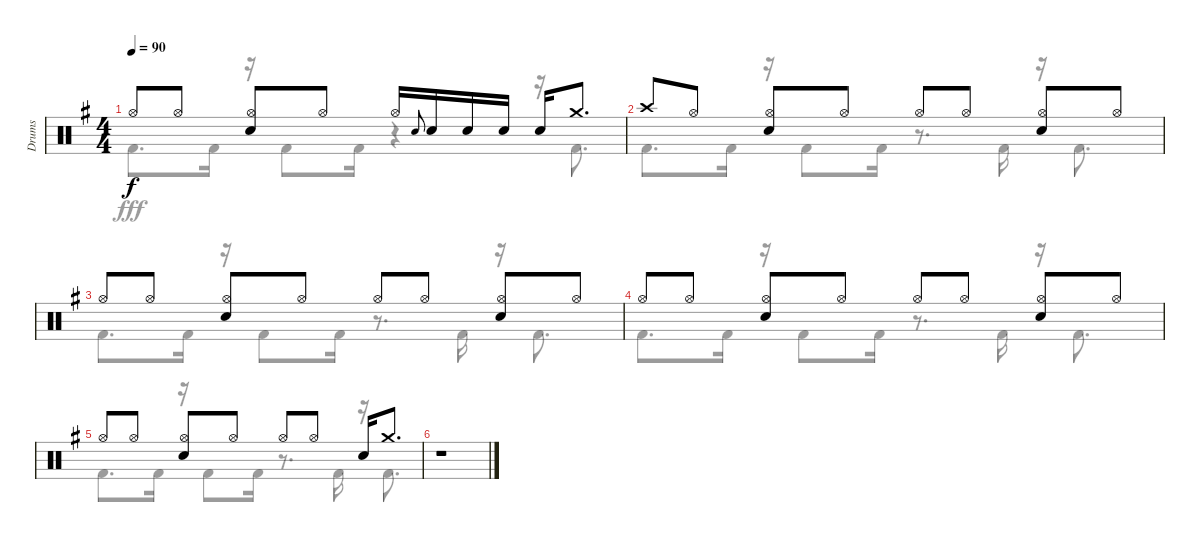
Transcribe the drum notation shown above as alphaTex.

\track ("Drums" "Drums") {instrument percussion}
\staff {score}
\articulation defaults
\voice
\ts (4 4)
\tempo 90
\clef neutral
\ks g "Hi-Hat (open)".8{dy f} "Hi-Hat (open)".8
("Hi-Hat (open)" "Snare (hit) 2").8 "Hi-Hat (open)".8 "Hi-Hat (open)".16 "Snare (hit) 2".8{gr onbeat} "Snare (hit) 2".16 "Snare (hit) 2".16 "Snare (hit) 2".16 "Snare (hit) 2".16 "Crash medium (hit)".8{d} |
"Crash high (hit)".8 "Hi-Hat (open)".8 ("Hi-Hat (open)" "Snare (hit) 2").8 "Hi-Hat (open)".8 "Hi-Hat (open)".8 "Hi-Hat (open)".8 ("Hi-Hat (open)" "Snare (hit) 2").8 "Hi-Hat (open)".8 |
"Hi-Hat (open)".8 "Hi-Hat (open)".8 ("Hi-Hat (open)" "Snare (hit) 2").8 "Hi-Hat (open)".8 "Hi-Hat (open)".8 "Hi-Hat (open)".8 ("Hi-Hat (open)" "Snare (hit) 2").8 "Hi-Hat (open)".8 |
"Hi-Hat (open)".8 "Hi-Hat (open)".8 ("Hi-Hat (open)" "Snare (hit) 2").8 "Hi-Hat (open)".8 "Hi-Hat (open)".8 "Hi-Hat (open)".8 ("Hi-Hat (open)" "Snare (hit) 2").8 "Hi-Hat (open)".8 |
"Hi-Hat (open)".8 "Hi-Hat (open)".8 ("Hi-Hat (open)" "Snare (hit) 2").8 "Hi-Hat (open)".8 "Hi-Hat (open)".8 "Hi-Hat (open)".8 "Snare (hit) 2".16 "Crash medium (hit)".8{d} |
r.1
\voice
\clef neutral
\ottava regular
\simile none
\ks g "Kick (hit) 2".8{d dy fff} "Kick (hit) 2".16
r.16 "Kick (hit) 2".8 "Kick (hit) 2".16 r.4 r.16 "Kick (hit) 2".8{d} |
"Kick (hit) 2".8{d} "Kick (hit) 2".16 r.16 "Kick (hit) 2".8 "Kick (hit) 2".16 r.8{d} "Kick (hit) 2".16 r.16 "Kick (hit) 2".8{d} |
"Kick (hit) 2".8{d} "Kick (hit) 2".16 r.16 "Kick (hit) 2".8 "Kick (hit) 2".16 r.8{d} "Kick (hit) 2".16 r.16 "Kick (hit) 2".8{d} |
"Kick (hit) 2".8{d} "Kick (hit) 2".16 r.16 "Kick (hit) 2".8 "Kick (hit) 2".16 r.8{d} "Kick (hit) 2".16 r.16 "Kick (hit) 2".8{d} |
"Kick (hit) 2".8{d} "Kick (hit) 2".16 r.16 "Kick (hit) 2".8 "Kick (hit) 2".16 r.8{d} "Kick (hit) 2".16 r.16 "Kick (hit) 2".8{d} |
r.1
